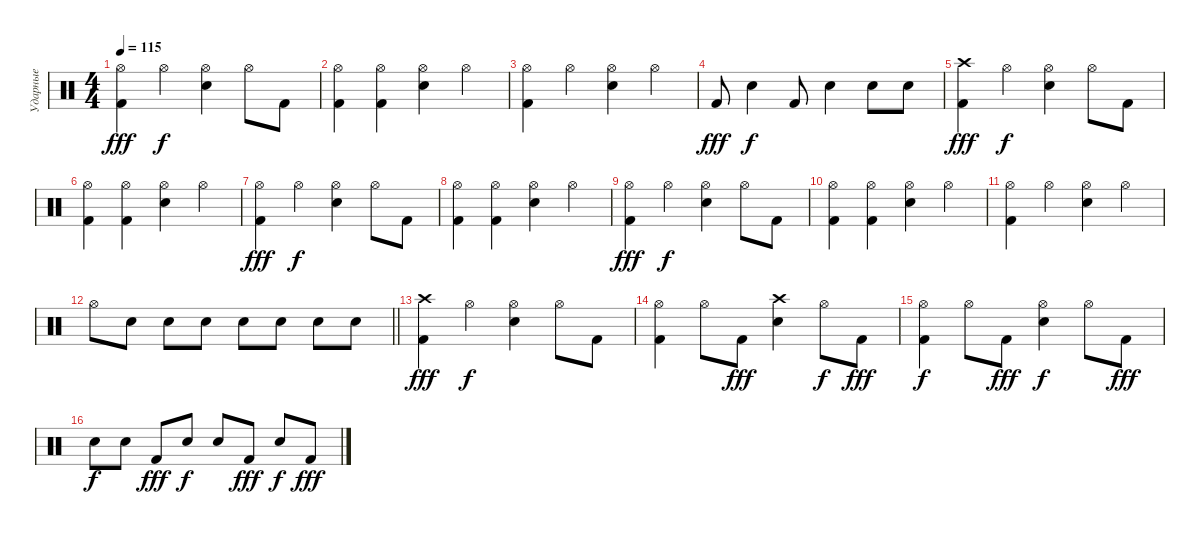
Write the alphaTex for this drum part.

\track ("Ударные" "Ударные") {instrument percussion}
\staff {score}
\articulation defaults
\ts (4 4)
\tempo 115
\clef neutral
\ks c
("Kick (hit) 2" "Hi-Hat (open)").4{dy fff} "Hi-Hat (open)".4{dy f} ("Snare (hit) 2" "Hi-Hat (open)").4 "Hi-Hat (open)".8 "Kick (hit) 2".8 |
("Kick (hit) 2" "Hi-Hat (open)").4 ("Kick (hit) 2" "Hi-Hat (open)").4 ("Snare (hit) 2" "Hi-Hat (open)").4 "Hi-Hat (open)".4 |
("Kick (hit) 2" "Hi-Hat (open)").4 "Hi-Hat (open)".4 ("Snare (hit) 2" "Hi-Hat (open)").4 "Hi-Hat (open)".4 |
"Kick (hit) 2".8{dy fff} "Snare (hit) 2".4{dy f} "Kick (hit) 2".8 "Snare (hit) 2".4 "Snare (hit) 2".8 "Snare (hit) 2".8 |
("Kick (hit) 2" "Crash high (hit)").4{dy fff} "Hi-Hat (open)".4{dy f} ("Snare (hit) 2" "Hi-Hat (open)").4 "Hi-Hat (open)".8 "Kick (hit) 2".8 |
("Kick (hit) 2" "Hi-Hat (open)").4 ("Kick (hit) 2" "Hi-Hat (open)").4 ("Snare (hit) 2" "Hi-Hat (open)").4 "Hi-Hat (open)".4 |
("Kick (hit) 2" "Hi-Hat (open)").4{dy fff} "Hi-Hat (open)".4{dy f} ("Snare (hit) 2" "Hi-Hat (open)").4 "Hi-Hat (open)".8 "Kick (hit) 2".8 |
("Kick (hit) 2" "Hi-Hat (open)").4 ("Kick (hit) 2" "Hi-Hat (open)").4 ("Snare (hit) 2" "Hi-Hat (open)").4 "Hi-Hat (open)".4 |
("Kick (hit) 2" "Hi-Hat (open)").4{dy fff} "Hi-Hat (open)".4{dy f} ("Snare (hit) 2" "Hi-Hat (open)").4 "Hi-Hat (open)".8 "Kick (hit) 2".8 |
("Kick (hit) 2" "Hi-Hat (open)").4 ("Kick (hit) 2" "Hi-Hat (open)").4 ("Snare (hit) 2" "Hi-Hat (open)").4 "Hi-Hat (open)".4 |
("Kick (hit) 2" "Hi-Hat (open)").4 "Hi-Hat (open)".4 ("Snare (hit) 2" "Hi-Hat (open)").4 "Hi-Hat (open)".4 |
\barLineRight lightlight "Hi-Hat (open)".8 "Snare (hit) 2".8 "Snare (hit) 2".8 "Snare (hit) 2".8 "Snare (hit) 2".8 "Snare (hit) 2".8 "Snare (hit) 2".8 "Snare (hit) 2".8
|
("Kick (hit) 2" "Crash high (hit)").4{dy fff} "Hi-Hat (open)".4{dy f} ("Snare (hit) 2" "Hi-Hat (open)").4 "Hi-Hat (open)".8 "Kick (hit) 2".8 |
("Kick (hit) 2" "Hi-Hat (open)").4 "Hi-Hat (open)".8 "Kick (hit) 2".8{dy fff} ("Snare (hit) 2" "Crash high (hit)").4 "Hi-Hat (open)".8{dy f} "Kick (hit) 2".8{dy fff} |
("Kick (hit) 2" "Hi-Hat (open)").4{dy f} "Hi-Hat (open)".8 "Kick (hit) 2".8{dy fff} ("Snare (hit) 2" "Hi-Hat (open)").4{dy f} "Hi-Hat (open)".8 "Kick (hit) 2".8{dy fff} |
"Snare (hit) 2".8{dy f} "Snare (hit) 2".8 "Kick (hit) 2".8{dy fff} "Snare (hit) 2".8{dy f} "Snare (hit) 2".8 "Kick (hit) 2".8{dy fff} "Snare (hit) 2".8{dy f} "Kick (hit) 2".8{dy fff}
